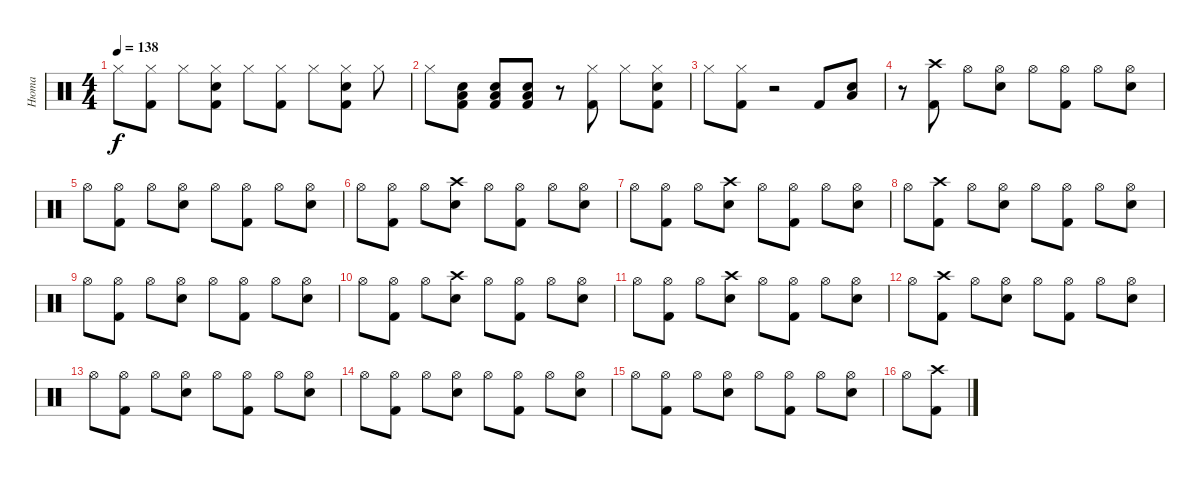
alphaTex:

\track ("Нюта" "Нюта") {instrument percussion}
\staff {score}
\articulation defaults
\ts (4 4)
\tempo 138
\clef neutral
\ks c "Hi-Hat (closed)".8{dy f}
("Kick (hit) 2" "Hi-Hat (closed)").8 "Hi-Hat (closed)".8 ("Hi-Hat (closed)" "Electric Snare (hit)" "Kick (hit) 2").8 "Hi-Hat (closed)".8 ("Kick (hit) 2" "Hi-Hat (closed)").8 "Hi-Hat (closed)".8 ("Hi-Hat (closed)" "Electric Snare (hit)" "Kick (hit) 2").8 "Hi-Hat (closed)".8 |
"Hi-Hat (closed)".8 ("Kick (hit) 2" "Electric Snare (hit)" "Low Tom (hit)").8 ("Kick (hit) 2" "Electric Snare (hit)" "Low Tom (hit)").8 ("Kick (hit) 2" "Electric Snare (hit)" "Low Tom (hit)").8 r.8 ("Kick (hit) 2" "Hi-Hat (closed)").8 "Hi-Hat (closed)".8 ("Hi-Hat (closed)" "Electric Snare (hit)" "Kick (hit) 2").8 |
"Hi-Hat (closed)".8 ("Kick (hit) 2" "Hi-Hat (closed)").8 r.2 "Kick (hit) 2".8 ("Electric Snare (hit)" "Low Tom (hit)").8 |
r.8 ("Crash high (hit)" "Kick (hit) 2").8 "Hi-Hat (open)".8 ("Hi-Hat (open)" "Snare (hit) 2").8 "Hi-Hat (open)".8 ("Hi-Hat (open)" "Kick (hit) 2").8 "Hi-Hat (open)".8 ("Hi-Hat (open)" "Snare (hit) 2").8 |
"Hi-Hat (open)".8 ("Hi-Hat (open)" "Kick (hit) 2").8 "Hi-Hat (open)".8 ("Hi-Hat (open)" "Snare (hit) 2").8 "Hi-Hat (open)".8 ("Hi-Hat (open)" "Kick (hit) 2").8 "Hi-Hat (open)".8 ("Hi-Hat (open)" "Snare (hit) 2").8 |
"Hi-Hat (open)".8 ("Hi-Hat (open)" "Kick (hit) 2").8 "Hi-Hat (open)".8 ("Crash high (hit)" "Snare (hit) 2").8 "Hi-Hat (open)".8 ("Hi-Hat (open)" "Kick (hit) 2").8 "Hi-Hat (open)".8 ("Hi-Hat (open)" "Snare (hit) 2").8 |
"Hi-Hat (open)".8 ("Hi-Hat (open)" "Kick (hit) 2").8 "Hi-Hat (open)".8 ("Crash high (hit)" "Snare (hit) 2").8 "Hi-Hat (open)".8 ("Hi-Hat (open)" "Kick (hit) 2").8 "Hi-Hat (open)".8 ("Hi-Hat (open)" "Snare (hit) 2").8 |
"Hi-Hat (open)".8 ("Crash high (hit)" "Kick (hit) 2").8 "Hi-Hat (open)".8 ("Hi-Hat (open)" "Snare (hit) 2").8 "Hi-Hat (open)".8 ("Hi-Hat (open)" "Kick (hit) 2").8 "Hi-Hat (open)".8 ("Hi-Hat (open)" "Snare (hit) 2").8 |
"Hi-Hat (open)".8 ("Hi-Hat (open)" "Kick (hit) 2").8 "Hi-Hat (open)".8 ("Hi-Hat (open)" "Snare (hit) 2").8 "Hi-Hat (open)".8 ("Hi-Hat (open)" "Kick (hit) 2").8 "Hi-Hat (open)".8 ("Hi-Hat (open)" "Snare (hit) 2").8 |
"Hi-Hat (open)".8 ("Hi-Hat (open)" "Kick (hit) 2").8 "Hi-Hat (open)".8 ("Crash high (hit)" "Snare (hit) 2").8 "Hi-Hat (open)".8 ("Hi-Hat (open)" "Kick (hit) 2").8 "Hi-Hat (open)".8 ("Hi-Hat (open)" "Snare (hit) 2").8 |
"Hi-Hat (open)".8 ("Hi-Hat (open)" "Kick (hit) 2").8 "Hi-Hat (open)".8 ("Crash high (hit)" "Snare (hit) 2").8 "Hi-Hat (open)".8 ("Hi-Hat (open)" "Kick (hit) 2").8 "Hi-Hat (open)".8 ("Hi-Hat (open)" "Snare (hit) 2").8 |
"Hi-Hat (open)".8 ("Crash high (hit)" "Kick (hit) 2").8 "Hi-Hat (open)".8 ("Hi-Hat (open)" "Snare (hit) 2").8 "Hi-Hat (open)".8 ("Hi-Hat (open)" "Kick (hit) 2").8 "Hi-Hat (open)".8 ("Hi-Hat (open)" "Snare (hit) 2").8 |
"Hi-Hat (open)".8 ("Hi-Hat (open)" "Kick (hit) 2").8 "Hi-Hat (open)".8 ("Hi-Hat (open)" "Snare (hit) 2").8 "Hi-Hat (open)".8 ("Hi-Hat (open)" "Kick (hit) 2").8 "Hi-Hat (open)".8 ("Hi-Hat (open)" "Snare (hit) 2").8 |
"Hi-Hat (open)".8 ("Hi-Hat (open)" "Kick (hit) 2").8 "Hi-Hat (open)".8 ("Hi-Hat (open)" "Snare (hit) 2").8 "Hi-Hat (open)".8 ("Hi-Hat (open)" "Kick (hit) 2").8 "Hi-Hat (open)".8 ("Hi-Hat (open)" "Snare (hit) 2").8 |
"Hi-Hat (open)".8 ("Hi-Hat (open)" "Kick (hit) 2").8 "Hi-Hat (open)".8 ("Hi-Hat (open)" "Snare (hit) 2").8 "Hi-Hat (open)".8 ("Hi-Hat (open)" "Kick (hit) 2").8 "Hi-Hat (open)".8 ("Hi-Hat (open)" "Snare (hit) 2").8 |
"Hi-Hat (open)".8 ("Crash high (hit)" "Kick (hit) 2").8
